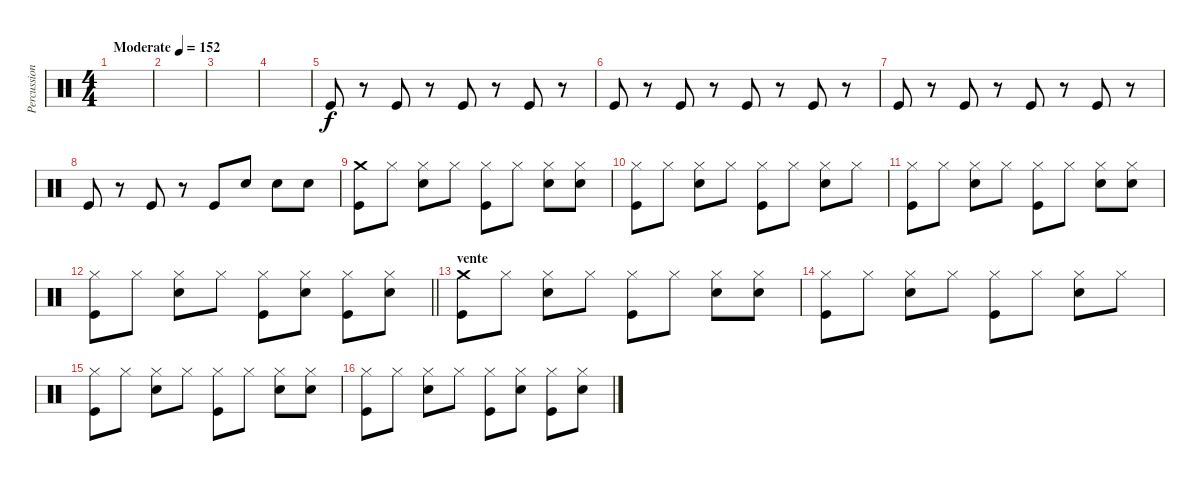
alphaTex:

\track ("Percussion" "Percussion") {instrument percussion}
\staff {score}
\articulation defaults
\ts (4 4)
\tempo (152 "Moderate")
\clef neutral
\ks c
|
|
|
|
"Kick (hit)".8 r.8 "Kick (hit)".8 r.8 "Kick (hit)".8 r.8 "Kick (hit)".8 r.8 |
"Kick (hit)".8 r.8 "Kick (hit)".8 r.8 "Kick (hit)".8 r.8 "Kick (hit)".8 r.8 |
"Kick (hit)".8 r.8 "Kick (hit)".8 r.8 "Kick (hit)".8 r.8 "Kick (hit)".8 r.8 |
"Kick (hit)".8 r.8 "Kick (hit)".8 r.8 "Kick (hit)".8 "Snare (hit) 2".8 "Snare (hit) 2".8 "Snare (hit) 2".8 |
("Crash medium (hit)" "Kick (hit)").8 "Hi-Hat (closed)".8 ("Hi-Hat (closed)" "Snare (hit) 2").8 "Hi-Hat (closed)".8 ("Hi-Hat (closed)" "Kick (hit)").8 "Hi-Hat (closed)".8 ("Hi-Hat (closed)" "Snare (hit) 2").8 ("Hi-Hat (closed)" "Snare (hit) 2").8 |
("Hi-Hat (closed)" "Kick (hit)").8 "Hi-Hat (closed)".8 ("Hi-Hat (closed)" "Snare (hit) 2").8 "Hi-Hat (closed)".8 ("Hi-Hat (closed)" "Kick (hit)").8 "Hi-Hat (closed)".8 ("Hi-Hat (closed)" "Snare (hit) 2").8 "Hi-Hat (closed)".8 |
("Hi-Hat (closed)" "Kick (hit)").8 "Hi-Hat (closed)".8 ("Hi-Hat (closed)" "Snare (hit) 2").8 "Hi-Hat (closed)".8 ("Hi-Hat (closed)" "Kick (hit)").8 "Hi-Hat (closed)".8 ("Hi-Hat (closed)" "Snare (hit) 2").8 ("Hi-Hat (closed)" "Snare (hit) 2").8 |
\barLineRight lightlight
("Hi-Hat (closed)" "Kick (hit)").8 "Hi-Hat (closed)".8 ("Hi-Hat (closed)" "Snare (hit) 2").8 "Hi-Hat (closed)".8 ("Hi-Hat (closed)" "Kick (hit)").8 ("Hi-Hat (closed)" "Snare (hit) 2").8 ("Hi-Hat (closed)" "Kick (hit)").8 ("Hi-Hat (closed)" "Snare (hit) 2").8 |
\section ("" "vente")
("Crash medium (hit)" "Kick (hit)").8 "Hi-Hat (closed)".8 ("Hi-Hat (closed)" "Snare (hit) 2").8 "Hi-Hat (closed)".8 ("Hi-Hat (closed)" "Kick (hit)").8 "Hi-Hat (closed)".8 ("Hi-Hat (closed)" "Snare (hit) 2").8 ("Hi-Hat (closed)" "Snare (hit) 2").8 |
("Hi-Hat (closed)" "Kick (hit)").8 "Hi-Hat (closed)".8 ("Hi-Hat (closed)" "Snare (hit) 2").8 "Hi-Hat (closed)".8 ("Hi-Hat (closed)" "Kick (hit)").8 "Hi-Hat (closed)".8 ("Hi-Hat (closed)" "Snare (hit) 2").8 "Hi-Hat (closed)".8 |
("Hi-Hat (closed)" "Kick (hit)").8 "Hi-Hat (closed)".8 ("Hi-Hat (closed)" "Snare (hit) 2").8 "Hi-Hat (closed)".8 ("Hi-Hat (closed)" "Kick (hit)").8 "Hi-Hat (closed)".8 ("Hi-Hat (closed)" "Snare (hit) 2").8 ("Hi-Hat (closed)" "Snare (hit) 2").8 |
("Hi-Hat (closed)" "Kick (hit)").8 "Hi-Hat (closed)".8 ("Hi-Hat (closed)" "Snare (hit) 2").8 "Hi-Hat (closed)".8 ("Hi-Hat (closed)" "Kick (hit)").8 ("Hi-Hat (closed)" "Snare (hit) 2").8 ("Hi-Hat (closed)" "Kick (hit)").8 ("Hi-Hat (closed)" "Snare (hit) 2").8
